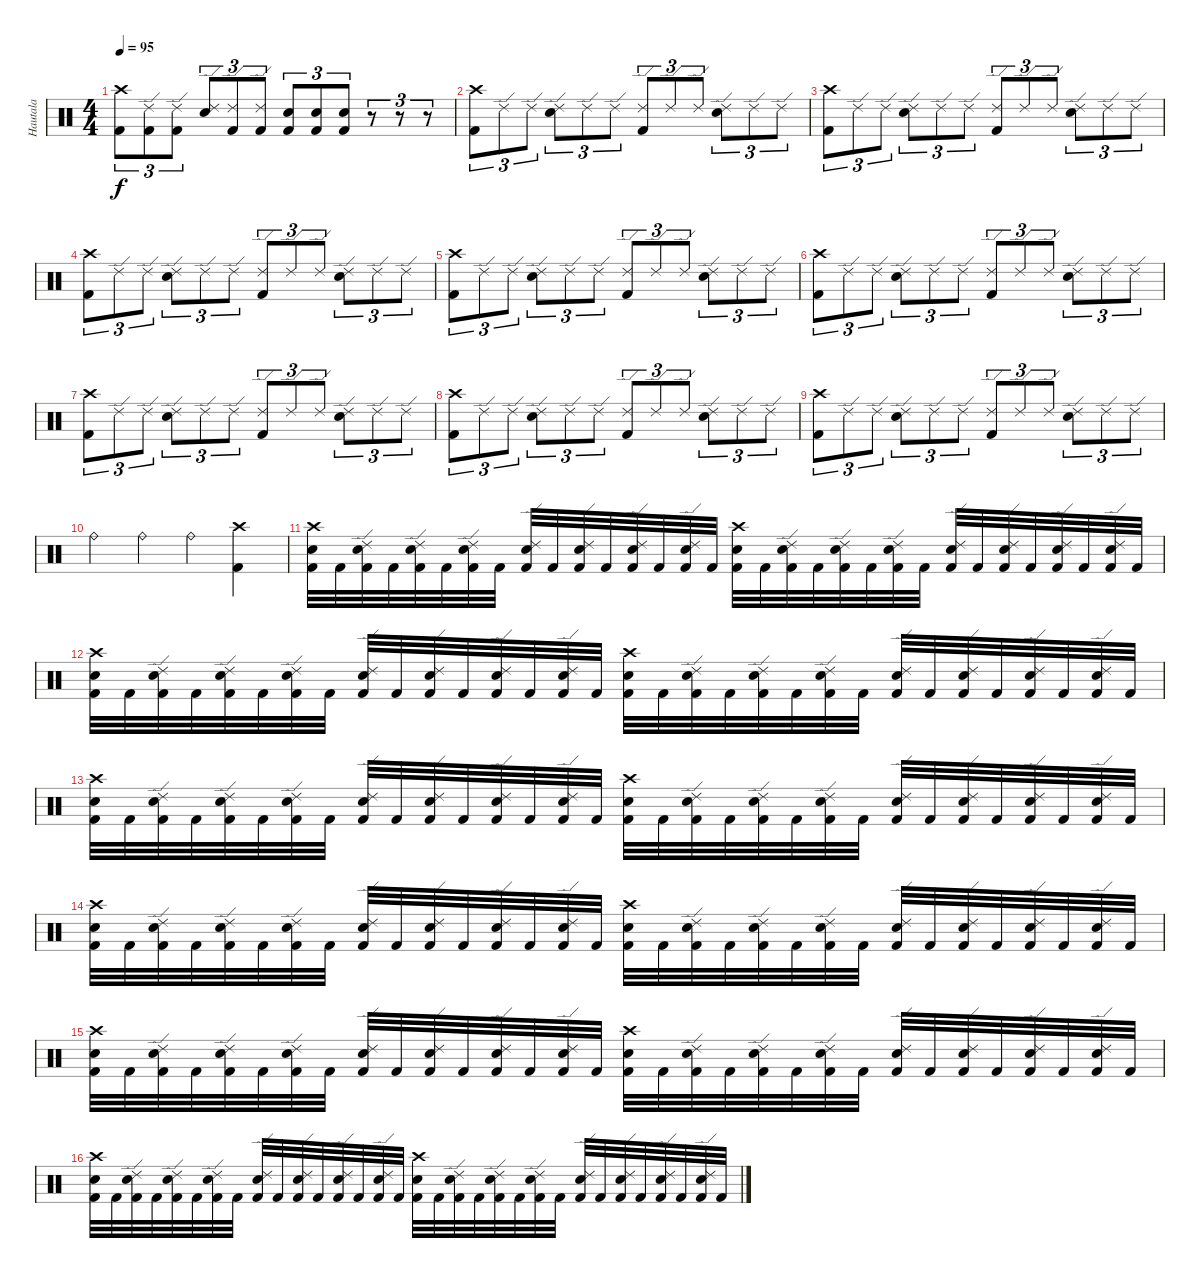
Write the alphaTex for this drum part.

\track ("Hautala" "Hautala") {instrument percussion}
\staff {score}
\articulation defaults
\ts (4 4)
\tempo 95
\clef neutral
\ks c
("Crash high (hit)" "Kick (hit) 2").8{tu (3 2) dy f} ("Ride (edge) 2" "Kick (hit) 2").8{tu (3 2)} ("Ride (edge) 2" "Kick (hit) 2").8{tu (3 2)} ("Ride (edge) 2" "Snare (hit) 2").8{tu (3 2)} ("Ride (edge) 2" "Kick (hit) 2").8{tu (3 2)} ("Ride (edge) 2" "Kick (hit) 2").8{tu (3 2)} ("Electric Snare (hit)" "Kick (hit) 2").8{tu (3 2)} ("Electric Snare (hit)" "Kick (hit) 2").8{tu (3 2)} ("Electric Snare (hit)" "Kick (hit) 2").8{tu (3 2)} r.8{tu (3 2)} r.8{tu (3 2)} r.8{tu (3 2)} |
("Crash high (hit)" "Kick (hit) 2").8{tu (3 2)} "Ride (edge) 2".8{tu (3 2)} "Ride (edge) 2".8{tu (3 2)} ("Ride (edge) 2" "Snare (hit) 2").8{tu (3 2)} "Ride (edge) 2".8{tu (3 2)} "Ride (edge) 2".8{tu (3 2)} ("Ride (edge) 2" "Kick (hit) 2").8{tu (3 2)} "Ride (edge) 2".8{tu (3 2)} "Ride (edge) 2".8{tu (3 2)} ("Ride (edge) 2" "Snare (hit) 2").8{tu (3 2)} "Ride (edge) 2".8{tu (3 2)} "Ride (edge) 2".8{tu (3 2)} |
("Crash high (hit)" "Kick (hit) 2").8{tu (3 2)} "Ride (edge) 2".8{tu (3 2)} "Ride (edge) 2".8{tu (3 2)} ("Ride (edge) 2" "Snare (hit) 2").8{tu (3 2)} "Ride (edge) 2".8{tu (3 2)} "Ride (edge) 2".8{tu (3 2)} ("Ride (edge) 2" "Kick (hit) 2").8{tu (3 2)} "Ride (edge) 2".8{tu (3 2)} "Ride (edge) 2".8{tu (3 2)} ("Ride (edge) 2" "Snare (hit) 2").8{tu (3 2)} "Ride (edge) 2".8{tu (3 2)} "Ride (edge) 2".8{tu (3 2)} |
("Crash high (hit)" "Kick (hit) 2").8{tu (3 2)} "Ride (edge) 2".8{tu (3 2)} "Ride (edge) 2".8{tu (3 2)} ("Ride (edge) 2" "Snare (hit) 2").8{tu (3 2)} "Ride (edge) 2".8{tu (3 2)} "Ride (edge) 2".8{tu (3 2)} ("Ride (edge) 2" "Kick (hit) 2").8{tu (3 2)} "Ride (edge) 2".8{tu (3 2)} "Ride (edge) 2".8{tu (3 2)} ("Ride (edge) 2" "Snare (hit) 2").8{tu (3 2)} "Ride (edge) 2".8{tu (3 2)} "Ride (edge) 2".8{tu (3 2)} |
("Crash high (hit)" "Kick (hit) 2").8{tu (3 2)} "Ride (edge) 2".8{tu (3 2)} "Ride (edge) 2".8{tu (3 2)} ("Ride (edge) 2" "Snare (hit) 2").8{tu (3 2)} "Ride (edge) 2".8{tu (3 2)} "Ride (edge) 2".8{tu (3 2)} ("Ride (edge) 2" "Kick (hit) 2").8{tu (3 2)} "Ride (edge) 2".8{tu (3 2)} "Ride (edge) 2".8{tu (3 2)} ("Ride (edge) 2" "Snare (hit) 2").8{tu (3 2)} "Ride (edge) 2".8{tu (3 2)} "Ride (edge) 2".8{tu (3 2)} |
("Crash high (hit)" "Kick (hit) 2").8{tu (3 2)} "Ride (edge) 2".8{tu (3 2)} "Ride (edge) 2".8{tu (3 2)} ("Ride (edge) 2" "Snare (hit) 2").8{tu (3 2)} "Ride (edge) 2".8{tu (3 2)} "Ride (edge) 2".8{tu (3 2)} ("Ride (edge) 2" "Kick (hit) 2").8{tu (3 2)} "Ride (edge) 2".8{tu (3 2)} "Ride (edge) 2".8{tu (3 2)} ("Ride (edge) 2" "Snare (hit) 2").8{tu (3 2)} "Ride (edge) 2".8{tu (3 2)} "Ride (edge) 2".8{tu (3 2)} |
("Crash high (hit)" "Kick (hit) 2").8{tu (3 2)} "Ride (edge) 2".8{tu (3 2)} "Ride (edge) 2".8{tu (3 2)} ("Ride (edge) 2" "Snare (hit) 2").8{tu (3 2)} "Ride (edge) 2".8{tu (3 2)} "Ride (edge) 2".8{tu (3 2)} ("Ride (edge) 2" "Kick (hit) 2").8{tu (3 2)} "Ride (edge) 2".8{tu (3 2)} "Ride (edge) 2".8{tu (3 2)} ("Ride (edge) 2" "Snare (hit) 2").8{tu (3 2)} "Ride (edge) 2".8{tu (3 2)} "Ride (edge) 2".8{tu (3 2)} |
("Crash high (hit)" "Kick (hit) 2").8{tu (3 2)} "Ride (edge) 2".8{tu (3 2)} "Ride (edge) 2".8{tu (3 2)} ("Ride (edge) 2" "Snare (hit) 2").8{tu (3 2)} "Ride (edge) 2".8{tu (3 2)} "Ride (edge) 2".8{tu (3 2)} ("Ride (edge) 2" "Kick (hit) 2").8{tu (3 2)} "Ride (edge) 2".8{tu (3 2)} "Ride (edge) 2".8{tu (3 2)} ("Ride (edge) 2" "Snare (hit) 2").8{tu (3 2)} "Ride (edge) 2".8{tu (3 2)} "Ride (edge) 2".8{tu (3 2)} |
("Crash high (hit)" "Kick (hit) 2").8{tu (3 2)} "Ride (edge) 2".8{tu (3 2)} "Ride (edge) 2".8{tu (3 2)} ("Ride (edge) 2" "Snare (hit) 2").8{tu (3 2)} "Ride (edge) 2".8{tu (3 2)} "Ride (edge) 2".8{tu (3 2)} ("Ride (edge) 2" "Kick (hit) 2").8{tu (3 2)} "Ride (edge) 2".8{tu (3 2)} "Ride (edge) 2".8{tu (3 2)} ("Ride (edge) 2" "Snare (hit) 2").8{tu (3 2)} "Ride (edge) 2".8{tu (3 2)} "Ride (edge) 2".8{tu (3 2)} |
"Ride (bell)".4 "Ride (bell)".4 "Ride (bell)".4 ("Crash high (hit)" "Kick (hit) 2").4 |
("Crash high (hit)" "Electric Snare (hit)" "Kick (hit) 2").32 "Kick (hit) 2".32 ("Ride (edge) 2" "Electric Snare (hit)" "Kick (hit) 2").32 "Kick (hit) 2".32 ("Ride (edge) 2" "Electric Snare (hit)" "Kick (hit) 2").32 "Kick (hit) 2".32 ("Ride (edge) 2" "Electric Snare (hit)" "Kick (hit) 2").32 "Kick (hit) 2".32 ("Ride (edge) 2" "Electric Snare (hit)" "Kick (hit) 2").32 "Kick (hit) 2".32 ("Ride (edge) 2" "Electric Snare (hit)" "Kick (hit) 2").32 "Kick (hit) 2".32 ("Ride (edge) 2" "Electric Snare (hit)" "Kick (hit) 2").32 "Kick (hit) 2".32 ("Ride (edge) 2" "Electric Snare (hit)" "Kick (hit) 2").32 "Kick (hit) 2".32 ("Crash high (hit)" "Electric Snare (hit)" "Kick (hit) 2").32 "Kick (hit) 2".32 ("Ride (edge) 2" "Electric Snare (hit)" "Kick (hit) 2").32 "Kick (hit) 2".32 ("Ride (edge) 2" "Electric Snare (hit)" "Kick (hit) 2").32 "Kick (hit) 2".32 ("Ride (edge) 2" "Electric Snare (hit)" "Kick (hit) 2").32 "Kick (hit) 2".32 ("Ride (edge) 2" "Electric Snare (hit)" "Kick (hit) 2").32 "Kick (hit) 2".32 ("Ride (edge) 2" "Electric Snare (hit)" "Kick (hit) 2").32 "Kick (hit) 2".32 ("Ride (edge) 2" "Electric Snare (hit)" "Kick (hit) 2").32 "Kick (hit) 2".32 ("Ride (edge) 2" "Electric Snare (hit)" "Kick (hit) 2").32 "Kick (hit) 2".32 |
("Crash high (hit)" "Electric Snare (hit)" "Kick (hit) 2").32 "Kick (hit) 2".32 ("Ride (edge) 2" "Electric Snare (hit)" "Kick (hit) 2").32 "Kick (hit) 2".32 ("Ride (edge) 2" "Electric Snare (hit)" "Kick (hit) 2").32 "Kick (hit) 2".32 ("Ride (edge) 2" "Electric Snare (hit)" "Kick (hit) 2").32 "Kick (hit) 2".32 ("Ride (edge) 2" "Electric Snare (hit)" "Kick (hit) 2").32 "Kick (hit) 2".32 ("Ride (edge) 2" "Electric Snare (hit)" "Kick (hit) 2").32 "Kick (hit) 2".32 ("Ride (edge) 2" "Electric Snare (hit)" "Kick (hit) 2").32 "Kick (hit) 2".32 ("Ride (edge) 2" "Electric Snare (hit)" "Kick (hit) 2").32 "Kick (hit) 2".32 ("Crash high (hit)" "Electric Snare (hit)" "Kick (hit) 2").32 "Kick (hit) 2".32 ("Ride (edge) 2" "Electric Snare (hit)" "Kick (hit) 2").32 "Kick (hit) 2".32 ("Ride (edge) 2" "Electric Snare (hit)" "Kick (hit) 2").32 "Kick (hit) 2".32 ("Ride (edge) 2" "Electric Snare (hit)" "Kick (hit) 2").32 "Kick (hit) 2".32 ("Ride (edge) 2" "Electric Snare (hit)" "Kick (hit) 2").32 "Kick (hit) 2".32 ("Ride (edge) 2" "Electric Snare (hit)" "Kick (hit) 2").32 "Kick (hit) 2".32 ("Ride (edge) 2" "Electric Snare (hit)" "Kick (hit) 2").32 "Kick (hit) 2".32 ("Ride (edge) 2" "Electric Snare (hit)" "Kick (hit) 2").32 "Kick (hit) 2".32 |
("Crash high (hit)" "Electric Snare (hit)" "Kick (hit) 2").32 "Kick (hit) 2".32 ("Ride (edge) 2" "Electric Snare (hit)" "Kick (hit) 2").32 "Kick (hit) 2".32 ("Ride (edge) 2" "Electric Snare (hit)" "Kick (hit) 2").32 "Kick (hit) 2".32 ("Ride (edge) 2" "Electric Snare (hit)" "Kick (hit) 2").32 "Kick (hit) 2".32 ("Ride (edge) 2" "Electric Snare (hit)" "Kick (hit) 2").32 "Kick (hit) 2".32 ("Ride (edge) 2" "Electric Snare (hit)" "Kick (hit) 2").32 "Kick (hit) 2".32 ("Ride (edge) 2" "Electric Snare (hit)" "Kick (hit) 2").32 "Kick (hit) 2".32 ("Ride (edge) 2" "Electric Snare (hit)" "Kick (hit) 2").32 "Kick (hit) 2".32 ("Crash high (hit)" "Electric Snare (hit)" "Kick (hit) 2").32 "Kick (hit) 2".32 ("Ride (edge) 2" "Electric Snare (hit)" "Kick (hit) 2").32 "Kick (hit) 2".32 ("Ride (edge) 2" "Electric Snare (hit)" "Kick (hit) 2").32 "Kick (hit) 2".32 ("Ride (edge) 2" "Electric Snare (hit)" "Kick (hit) 2").32 "Kick (hit) 2".32 ("Ride (edge) 2" "Electric Snare (hit)" "Kick (hit) 2").32 "Kick (hit) 2".32 ("Ride (edge) 2" "Electric Snare (hit)" "Kick (hit) 2").32 "Kick (hit) 2".32 ("Ride (edge) 2" "Electric Snare (hit)" "Kick (hit) 2").32 "Kick (hit) 2".32 ("Ride (edge) 2" "Electric Snare (hit)" "Kick (hit) 2").32 "Kick (hit) 2".32 |
("Crash high (hit)" "Electric Snare (hit)" "Kick (hit) 2").32 "Kick (hit) 2".32 ("Ride (edge) 2" "Electric Snare (hit)" "Kick (hit) 2").32 "Kick (hit) 2".32 ("Ride (edge) 2" "Electric Snare (hit)" "Kick (hit) 2").32 "Kick (hit) 2".32 ("Ride (edge) 2" "Electric Snare (hit)" "Kick (hit) 2").32 "Kick (hit) 2".32 ("Ride (edge) 2" "Electric Snare (hit)" "Kick (hit) 2").32 "Kick (hit) 2".32 ("Ride (edge) 2" "Electric Snare (hit)" "Kick (hit) 2").32 "Kick (hit) 2".32 ("Ride (edge) 2" "Electric Snare (hit)" "Kick (hit) 2").32 "Kick (hit) 2".32 ("Ride (edge) 2" "Electric Snare (hit)" "Kick (hit) 2").32 "Kick (hit) 2".32 ("Crash high (hit)" "Electric Snare (hit)" "Kick (hit) 2").32 "Kick (hit) 2".32 ("Ride (edge) 2" "Electric Snare (hit)" "Kick (hit) 2").32 "Kick (hit) 2".32 ("Ride (edge) 2" "Electric Snare (hit)" "Kick (hit) 2").32 "Kick (hit) 2".32 ("Ride (edge) 2" "Electric Snare (hit)" "Kick (hit) 2").32 "Kick (hit) 2".32 ("Ride (edge) 2" "Electric Snare (hit)" "Kick (hit) 2").32 "Kick (hit) 2".32 ("Ride (edge) 2" "Electric Snare (hit)" "Kick (hit) 2").32 "Kick (hit) 2".32 ("Ride (edge) 2" "Electric Snare (hit)" "Kick (hit) 2").32 "Kick (hit) 2".32 ("Ride (edge) 2" "Electric Snare (hit)" "Kick (hit) 2").32 "Kick (hit) 2".32 |
("Crash high (hit)" "Electric Snare (hit)" "Kick (hit) 2").32 "Kick (hit) 2".32 ("Ride (edge) 2" "Electric Snare (hit)" "Kick (hit) 2").32 "Kick (hit) 2".32 ("Ride (edge) 2" "Electric Snare (hit)" "Kick (hit) 2").32 "Kick (hit) 2".32 ("Ride (edge) 2" "Electric Snare (hit)" "Kick (hit) 2").32 "Kick (hit) 2".32 ("Ride (edge) 2" "Electric Snare (hit)" "Kick (hit) 2").32 "Kick (hit) 2".32 ("Ride (edge) 2" "Electric Snare (hit)" "Kick (hit) 2").32 "Kick (hit) 2".32 ("Ride (edge) 2" "Electric Snare (hit)" "Kick (hit) 2").32 "Kick (hit) 2".32 ("Ride (edge) 2" "Electric Snare (hit)" "Kick (hit) 2").32 "Kick (hit) 2".32 ("Crash high (hit)" "Electric Snare (hit)" "Kick (hit) 2").32 "Kick (hit) 2".32 ("Ride (edge) 2" "Electric Snare (hit)" "Kick (hit) 2").32 "Kick (hit) 2".32 ("Ride (edge) 2" "Electric Snare (hit)" "Kick (hit) 2").32 "Kick (hit) 2".32 ("Ride (edge) 2" "Electric Snare (hit)" "Kick (hit) 2").32 "Kick (hit) 2".32 ("Ride (edge) 2" "Electric Snare (hit)" "Kick (hit) 2").32 "Kick (hit) 2".32 ("Ride (edge) 2" "Electric Snare (hit)" "Kick (hit) 2").32 "Kick (hit) 2".32 ("Ride (edge) 2" "Electric Snare (hit)" "Kick (hit) 2").32 "Kick (hit) 2".32 ("Ride (edge) 2" "Electric Snare (hit)" "Kick (hit) 2").32 "Kick (hit) 2".32 |
("Crash high (hit)" "Electric Snare (hit)" "Kick (hit) 2").32 "Kick (hit) 2".32 ("Ride (edge) 2" "Electric Snare (hit)" "Kick (hit) 2").32 "Kick (hit) 2".32 ("Ride (edge) 2" "Electric Snare (hit)" "Kick (hit) 2").32 "Kick (hit) 2".32 ("Ride (edge) 2" "Electric Snare (hit)" "Kick (hit) 2").32 "Kick (hit) 2".32 ("Ride (edge) 2" "Electric Snare (hit)" "Kick (hit) 2").32 "Kick (hit) 2".32 ("Ride (edge) 2" "Electric Snare (hit)" "Kick (hit) 2").32 "Kick (hit) 2".32 ("Ride (edge) 2" "Electric Snare (hit)" "Kick (hit) 2").32 "Kick (hit) 2".32 ("Ride (edge) 2" "Electric Snare (hit)" "Kick (hit) 2").32 "Kick (hit) 2".32 ("Crash high (hit)" "Electric Snare (hit)" "Kick (hit) 2").32 "Kick (hit) 2".32 ("Ride (edge) 2" "Electric Snare (hit)" "Kick (hit) 2").32 "Kick (hit) 2".32 ("Ride (edge) 2" "Electric Snare (hit)" "Kick (hit) 2").32 "Kick (hit) 2".32 ("Ride (edge) 2" "Electric Snare (hit)" "Kick (hit) 2").32 "Kick (hit) 2".32 ("Ride (edge) 2" "Electric Snare (hit)" "Kick (hit) 2").32 "Kick (hit) 2".32 ("Ride (edge) 2" "Electric Snare (hit)" "Kick (hit) 2").32 "Kick (hit) 2".32 ("Ride (edge) 2" "Electric Snare (hit)" "Kick (hit) 2").32 "Kick (hit) 2".32 ("Ride (edge) 2" "Electric Snare (hit)" "Kick (hit) 2").32 "Kick (hit) 2".32
